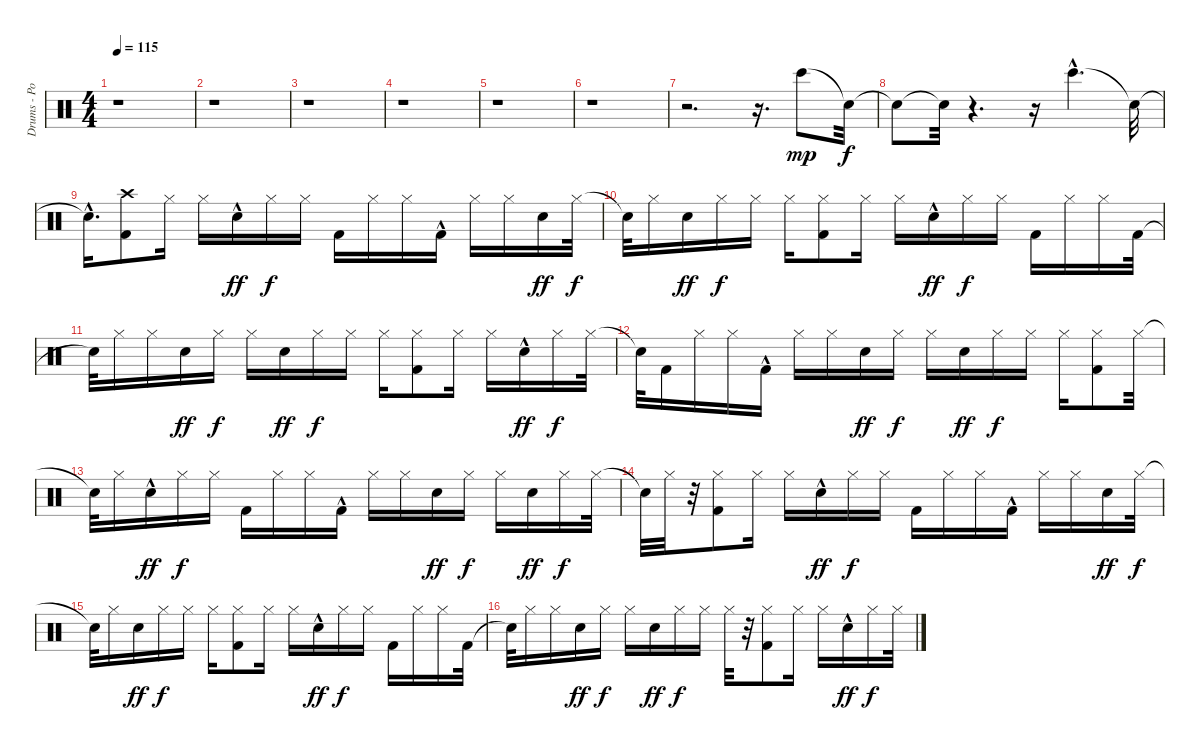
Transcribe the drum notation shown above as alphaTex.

\track ("Drums - Portnoy" "Drums - Po") {instrument percussion}
\staff {score}
\articulation defaults
\ts (4 4)
\tempo 115
\clef neutral
\ks c
r.1{dy f} |
r.1 |
r.1 |
r.1 |
r.1 |
r.1 |
r.2{d} r.16{d} "Bongo High (hit)".8{dy mp} "Snare (hit)"{t}.32{dy f} |
"Snare (hit)"{t}.8 "Snare (hit)"{t}.32 r.4{d} r.16 "Bongo High (hit)"{hac}.4{d} "Snare (hit)"{t}.32 |
"Snare (hit)"{hac t}.16{d} ("Crash high (hit)" "Kick (hit) 2").8 "Hi-Hat (closed)".16 "Hi-Hat (closed)".16 "Electric Snare (hit)"{hac}.16{dy ff} "Hi-Hat (closed)".16{dy f} "Hi-Hat (closed)".16 "Kick (hit) 2".16 "Hi-Hat (closed)".16 "Hi-Hat (closed)".16 "Kick (hit) 2"{hac}.16 "Hi-Hat (closed)".16 "Hi-Hat (closed)".16 "Electric Snare (hit)".16{dy ff} "Hi-Hat (closed)".32{dy f} |
"Snare (hit)"{t}.32 "Hi-Hat (closed)".16 "Electric Snare (hit)".16{dy ff} "Hi-Hat (closed)".16{dy f} "Hi-Hat (closed)".16 "Hi-Hat (closed)".16 ("Kick (hit) 2" "Hi-Hat (closed)").8 "Hi-Hat (closed)".16 "Hi-Hat (closed)".16 "Electric Snare (hit)"{hac}.16{dy ff} "Hi-Hat (closed)".16{dy f} "Hi-Hat (closed)".16 "Kick (hit) 2".16 "Hi-Hat (closed)".16 "Hi-Hat (closed)".16 "Kick (hit) 2".32 |
"Snare (hit)"{t}.32 "Hi-Hat (closed)".16 "Hi-Hat (closed)".16 "Electric Snare (hit)".16{dy ff} "Hi-Hat (closed)".16{dy f} "Hi-Hat (closed)".16 "Electric Snare (hit)".16{dy ff} "Hi-Hat (closed)".16{dy f} "Hi-Hat (closed)".16 "Hi-Hat (closed)".16 ("Hi-Hat (closed)" "Kick (hit) 2").8 "Hi-Hat (closed)".16 "Hi-Hat (closed)".16 "Electric Snare (hit)"{hac}.16{dy ff} "Hi-Hat (closed)".16{dy f} "Hi-Hat (closed)".32 |
"Snare (hit)"{t}.32 "Kick (hit) 2".16 "Hi-Hat (closed)".16 "Hi-Hat (closed)".16 "Kick (hit) 2"{hac}.16 "Hi-Hat (closed)".16 "Hi-Hat (closed)".16 "Electric Snare (hit)".16{dy ff} "Hi-Hat (closed)".16{dy f} "Hi-Hat (closed)".16 "Electric Snare (hit)".16{dy ff} "Hi-Hat (closed)".16{dy f} "Hi-Hat (closed)".16 "Hi-Hat (closed)".16 ("Kick (hit) 2" "Hi-Hat (closed)").8 "Hi-Hat (closed)".32 |
"Snare (hit)"{t}.32 "Hi-Hat (closed)".16 "Electric Snare (hit)"{hac}.16{dy ff} "Hi-Hat (closed)".16{dy f} "Hi-Hat (closed)".16 "Kick (hit) 2".16 "Hi-Hat (closed)".16 "Hi-Hat (closed)".16 "Kick (hit) 2"{hac}.16 "Hi-Hat (closed)".16 "Hi-Hat (closed)".16 "Electric Snare (hit)".16{dy ff} "Hi-Hat (closed)".16{dy f} "Hi-Hat (closed)".16 "Electric Snare (hit)".16{dy ff} "Hi-Hat (closed)".16{dy f} "Hi-Hat (closed)".32 |
"Snare (hit)"{t}.32 "Hi-Hat (closed)".32 r.32 ("Kick (hit) 2" "Hi-Hat (closed)").8 "Hi-Hat (closed)".16 "Hi-Hat (closed)".16 "Electric Snare (hit)"{hac}.16{dy ff} "Hi-Hat (closed)".16{dy f} "Hi-Hat (closed)".16 "Kick (hit) 2".16 "Hi-Hat (closed)".16 "Hi-Hat (closed)".16 "Kick (hit) 2"{hac}.16 "Hi-Hat (closed)".16 "Hi-Hat (closed)".16 "Electric Snare (hit)".16{dy ff} "Hi-Hat (closed)".32{dy f} |
"Snare (hit)"{t}.32 "Hi-Hat (closed)".16 "Electric Snare (hit)".16{dy ff} "Hi-Hat (closed)".16{dy f} "Hi-Hat (closed)".16 "Hi-Hat (closed)".16 ("Kick (hit) 2" "Hi-Hat (closed)").8 "Hi-Hat (closed)".16 "Hi-Hat (closed)".16 "Electric Snare (hit)"{hac}.16{dy ff} "Hi-Hat (closed)".16{dy f} "Hi-Hat (closed)".16 "Kick (hit) 2".16 "Hi-Hat (closed)".16 "Hi-Hat (closed)".16 "Kick (hit) 2".32 |
"Snare (hit)"{t}.32 "Hi-Hat (closed)".16 "Hi-Hat (closed)".16 "Electric Snare (hit)".16{dy ff} "Hi-Hat (closed)".16{dy f} "Hi-Hat (closed)".16 "Electric Snare (hit)".16{dy ff} "Hi-Hat (closed)".16{dy f} "Hi-Hat (closed)".16 "Hi-Hat (closed)".32 r.32 ("Hi-Hat (closed)" "Kick (hit) 2").8 "Hi-Hat (closed)".16 "Hi-Hat (closed)".16 "Electric Snare (hit)"{hac}.16{dy ff} "Hi-Hat (closed)".16{dy f} "Hi-Hat (closed)".32
